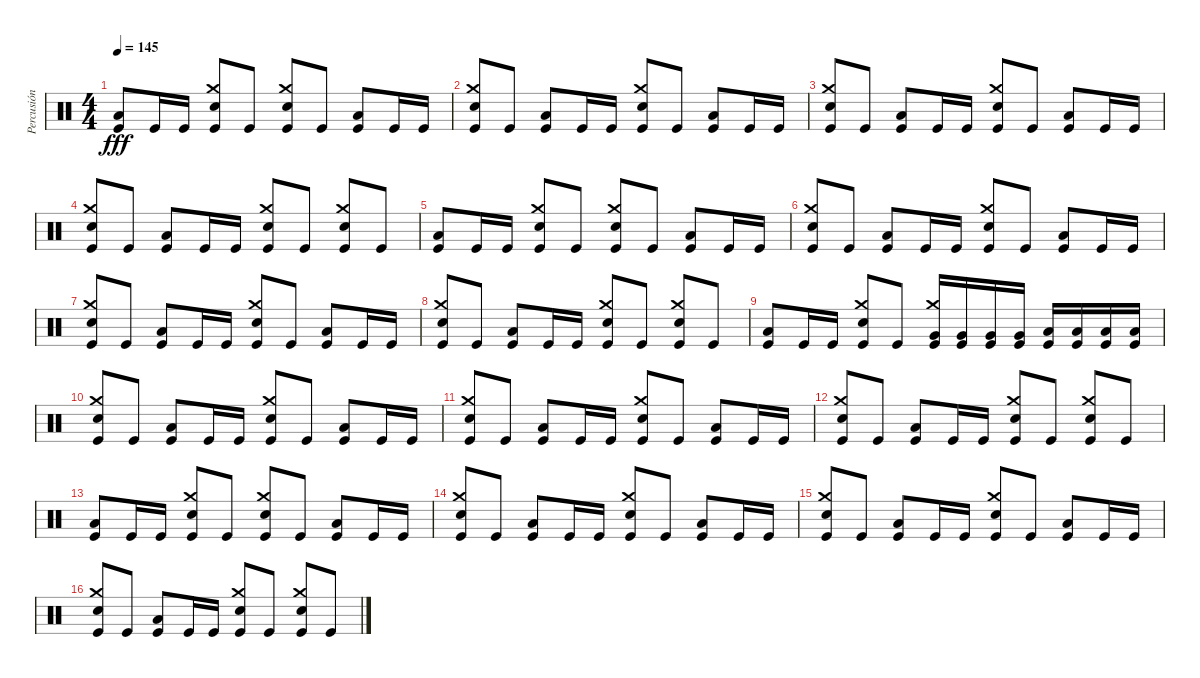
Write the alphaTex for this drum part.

\track ("Percusión" "Percusión") {instrument percussion}
\staff {score}
\articulation defaults
\ts (4 4)
\tempo 145
\clef neutral
\ks c
("Low Floor Tom (hit)" "Kick (hit)").8{dy fff} "Kick (hit)".16 "Kick (hit)".16 ("Crash medium (hit)" "Snare (hit) 2" "Kick (hit)").8 "Kick (hit)".8 ("Crash medium (hit)" "Snare (hit) 2" "Kick (hit)").8 "Kick (hit)".8 ("Low Floor Tom (hit)" "Kick (hit)").8 "Kick (hit)".16 "Kick (hit)".16 |
("Crash medium (hit)" "Snare (hit) 2" "Kick (hit)").8 "Kick (hit)".8 ("Low Floor Tom (hit)" "Kick (hit)").8 "Kick (hit)".16 "Kick (hit)".16 ("Crash medium (hit)" "Snare (hit) 2" "Kick (hit)").8 "Kick (hit)".8 ("Low Floor Tom (hit)" "Kick (hit)").8 "Kick (hit)".16 "Kick (hit)".16 |
("Crash medium (hit)" "Snare (hit) 2" "Kick (hit)").8 "Kick (hit)".8 ("Low Floor Tom (hit)" "Kick (hit)").8 "Kick (hit)".16 "Kick (hit)".16 ("Crash medium (hit)" "Snare (hit) 2" "Kick (hit)").8 "Kick (hit)".8 ("Low Floor Tom (hit)" "Kick (hit)").8 "Kick (hit)".16 "Kick (hit)".16 |
("Crash medium (hit)" "Snare (hit) 2" "Kick (hit)").8 "Kick (hit)".8 ("Low Floor Tom (hit)" "Kick (hit)").8 "Kick (hit)".16 "Kick (hit)".16 ("Crash medium (hit)" "Snare (hit) 2" "Kick (hit)").8 "Kick (hit)".8 ("Crash medium (hit)" "Snare (hit) 2" "Kick (hit)").8 "Kick (hit)".8 |
("Low Floor Tom (hit)" "Kick (hit)").8 "Kick (hit)".16 "Kick (hit)".16 ("Crash medium (hit)" "Snare (hit) 2" "Kick (hit)").8 "Kick (hit)".8 ("Crash medium (hit)" "Snare (hit) 2" "Kick (hit)").8 "Kick (hit)".8 ("Low Floor Tom (hit)" "Kick (hit)").8 "Kick (hit)".16 "Kick (hit)".16 |
("Crash medium (hit)" "Snare (hit) 2" "Kick (hit)").8 "Kick (hit)".8 ("Low Floor Tom (hit)" "Kick (hit)").8 "Kick (hit)".16 "Kick (hit)".16 ("Crash medium (hit)" "Snare (hit) 2" "Kick (hit)").8 "Kick (hit)".8 ("Low Floor Tom (hit)" "Kick (hit)").8 "Kick (hit)".16 "Kick (hit)".16 |
("Crash medium (hit)" "Snare (hit) 2" "Kick (hit)").8 "Kick (hit)".8 ("Low Floor Tom (hit)" "Kick (hit)").8 "Kick (hit)".16 "Kick (hit)".16 ("Crash medium (hit)" "Snare (hit) 2" "Kick (hit)").8 "Kick (hit)".8 ("Low Floor Tom (hit)" "Kick (hit)").8 "Kick (hit)".16 "Kick (hit)".16 |
("Crash medium (hit)" "Snare (hit) 2" "Kick (hit)").8 "Kick (hit)".8 ("Low Floor Tom (hit)" "Kick (hit)").8 "Kick (hit)".16 "Kick (hit)".16 ("Crash medium (hit)" "Snare (hit) 2" "Kick (hit)").8 "Kick (hit)".8 ("Crash medium (hit)" "Snare (hit) 2" "Kick (hit)").8 "Kick (hit)".8 |
("Low Floor Tom (hit)" "Kick (hit)").8 "Kick (hit)".16 "Kick (hit)".16 ("Crash medium (hit)" "Snare (hit) 2" "Kick (hit)").8 "Kick (hit)".8 ("Crash medium (hit)" "Very Low Tom (hit)" "Kick (hit)").16 ("Very Low Tom (hit)" "Kick (hit)").16 ("Very Low Tom (hit)" "Kick (hit)").16 ("Very Low Tom (hit)" "Kick (hit)").16 ("Low Floor Tom (hit)" "Kick (hit)").16 ("Low Floor Tom (hit)" "Kick (hit)").16 ("Low Floor Tom (hit)" "Kick (hit)").16 ("Low Floor Tom (hit)" "Kick (hit)").16 |
("Crash medium (hit)" "Snare (hit) 2" "Kick (hit)").8 "Kick (hit)".8 ("Low Floor Tom (hit)" "Kick (hit)").8 "Kick (hit)".16 "Kick (hit)".16 ("Crash medium (hit)" "Snare (hit) 2" "Kick (hit)").8 "Kick (hit)".8 ("Low Floor Tom (hit)" "Kick (hit)").8 "Kick (hit)".16 "Kick (hit)".16 |
("Crash medium (hit)" "Snare (hit) 2" "Kick (hit)").8 "Kick (hit)".8 ("Low Floor Tom (hit)" "Kick (hit)").8 "Kick (hit)".16 "Kick (hit)".16 ("Crash medium (hit)" "Snare (hit) 2" "Kick (hit)").8 "Kick (hit)".8 ("Low Floor Tom (hit)" "Kick (hit)").8 "Kick (hit)".16 "Kick (hit)".16 |
("Crash medium (hit)" "Snare (hit) 2" "Kick (hit)").8 "Kick (hit)".8 ("Low Floor Tom (hit)" "Kick (hit)").8 "Kick (hit)".16 "Kick (hit)".16 ("Crash medium (hit)" "Snare (hit) 2" "Kick (hit)").8 "Kick (hit)".8 ("Crash medium (hit)" "Snare (hit) 2" "Kick (hit)").8 "Kick (hit)".8 |
("Low Floor Tom (hit)" "Kick (hit)").8 "Kick (hit)".16 "Kick (hit)".16 ("Crash medium (hit)" "Snare (hit) 2" "Kick (hit)").8 "Kick (hit)".8 ("Crash medium (hit)" "Snare (hit) 2" "Kick (hit)").8 "Kick (hit)".8 ("Low Floor Tom (hit)" "Kick (hit)").8 "Kick (hit)".16 "Kick (hit)".16 |
("Crash medium (hit)" "Snare (hit) 2" "Kick (hit)").8 "Kick (hit)".8 ("Low Floor Tom (hit)" "Kick (hit)").8 "Kick (hit)".16 "Kick (hit)".16 ("Crash medium (hit)" "Snare (hit) 2" "Kick (hit)").8 "Kick (hit)".8 ("Low Floor Tom (hit)" "Kick (hit)").8 "Kick (hit)".16 "Kick (hit)".16 |
("Crash medium (hit)" "Snare (hit) 2" "Kick (hit)").8 "Kick (hit)".8 ("Low Floor Tom (hit)" "Kick (hit)").8 "Kick (hit)".16 "Kick (hit)".16 ("Crash medium (hit)" "Snare (hit) 2" "Kick (hit)").8 "Kick (hit)".8 ("Low Floor Tom (hit)" "Kick (hit)").8 "Kick (hit)".16 "Kick (hit)".16 |
("Crash medium (hit)" "Snare (hit) 2" "Kick (hit)").8 "Kick (hit)".8 ("Low Floor Tom (hit)" "Kick (hit)").8 "Kick (hit)".16 "Kick (hit)".16 ("Crash medium (hit)" "Snare (hit) 2" "Kick (hit)").8 "Kick (hit)".8 ("Crash medium (hit)" "Snare (hit) 2" "Kick (hit)").8 "Kick (hit)".8
